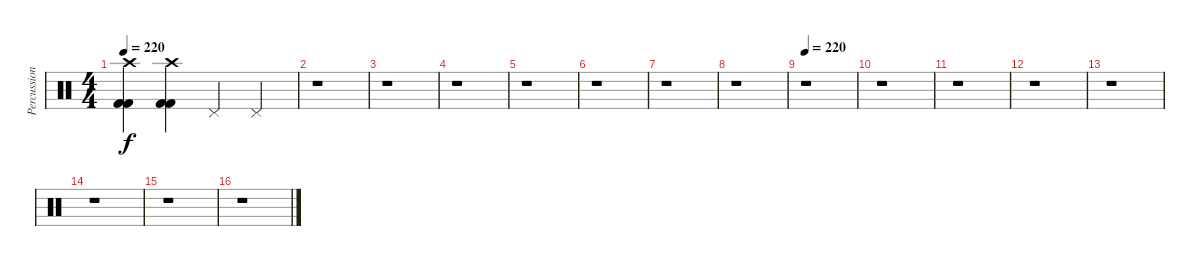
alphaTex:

\track ("Percussion" "Percussion") {instrument percussion}
\staff {score}
\articulation defaults
\ts (4 4)
\tempo 220
\clef neutral
\ks c
("Crash high (hit)" "Kick (hit) 2" "Kick (hit) 2").4{dy f} ("Crash high (hit)" "Kick (hit) 2" "Kick (hit) 2").4 "Pedal Hi-Hat (hit)".4 "Pedal Hi-Hat (hit)".4 |
r.1 |
r.1 |
r.1 |
r.1 |
r.1 |
r.1 |
r.1 |
\tempo 220
r.1 |
r.1 |
r.1 |
r.1 |
r.1 |
r.1 |
r.1 |
r.1
